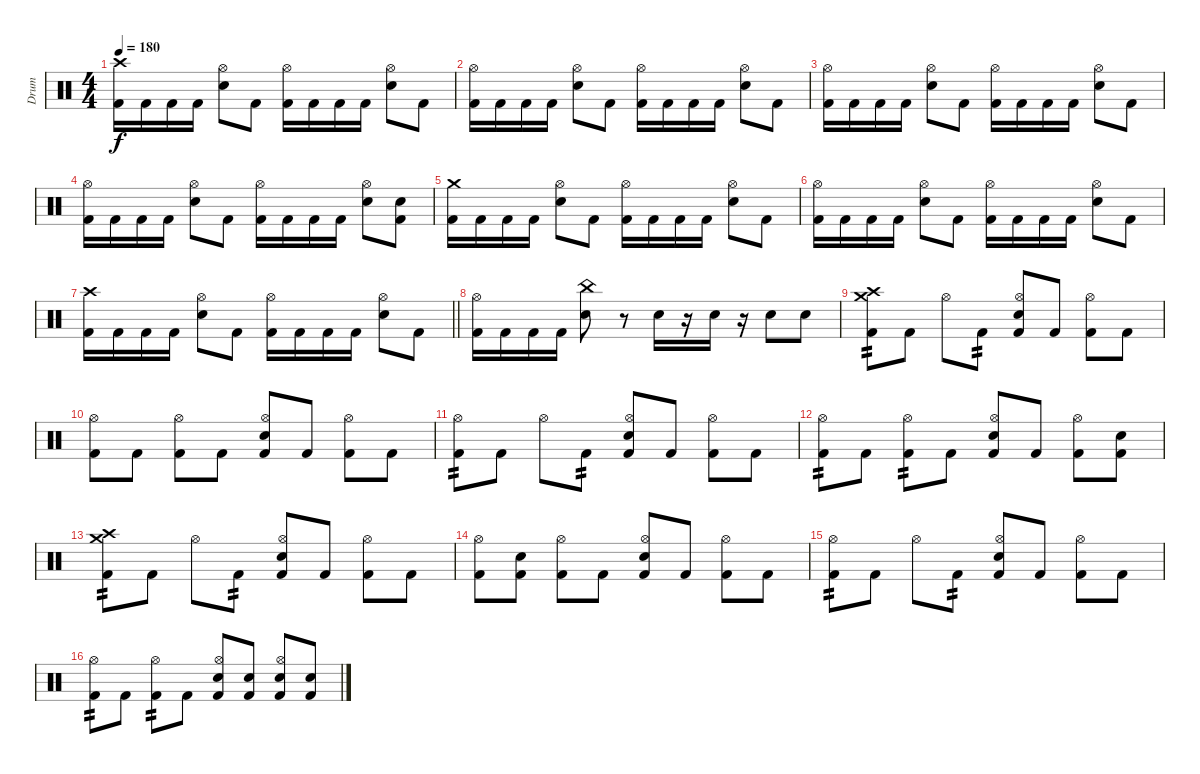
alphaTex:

\track ("Drum" "Drum") {instrument percussion}
\staff {score}
\articulation defaults
\ts (4 4)
\tempo 180
\clef neutral
\ks c
("Crash high (hit)" "Kick (hit) 2").16{dy f} "Kick (hit) 2".16 "Kick (hit) 2".16 "Kick (hit) 2".16 ("Hi-Hat (open)" "Snare (hit) 2").8 "Kick (hit) 2".8 ("Hi-Hat (open)" "Kick (hit) 2").16 "Kick (hit) 2".16 "Kick (hit) 2".16 "Kick (hit) 2".16 ("Hi-Hat (open)" "Snare (hit) 2").8 "Kick (hit) 2".8 |
("Hi-Hat (open)" "Kick (hit) 2").16 "Kick (hit) 2".16 "Kick (hit) 2".16 "Kick (hit) 2".16 ("Hi-Hat (open)" "Snare (hit) 2").8 "Kick (hit) 2".8 ("Hi-Hat (open)" "Kick (hit) 2").16 "Kick (hit) 2".16 "Kick (hit) 2".16 "Kick (hit) 2".16 ("Hi-Hat (open)" "Snare (hit) 2").8 "Kick (hit) 2".8 |
("Hi-Hat (open)" "Kick (hit) 2").16 "Kick (hit) 2".16 "Kick (hit) 2".16 "Kick (hit) 2".16 ("Hi-Hat (open)" "Snare (hit) 2").8 "Kick (hit) 2".8 ("Hi-Hat (open)" "Kick (hit) 2").16 "Kick (hit) 2".16 "Kick (hit) 2".16 "Kick (hit) 2".16 ("Hi-Hat (open)" "Snare (hit) 2").8 "Kick (hit) 2".8 |
("Hi-Hat (open)" "Kick (hit) 2").16 "Kick (hit) 2".16 "Kick (hit) 2".16 "Kick (hit) 2".16 ("Hi-Hat (open)" "Snare (hit) 2").8 "Kick (hit) 2".8 ("Hi-Hat (open)" "Kick (hit) 2").16 "Kick (hit) 2".16 "Kick (hit) 2".16 "Kick (hit) 2".16 ("Hi-Hat (open)" "Snare (hit) 2").8 ("Snare (hit) 2" "Kick (hit) 2").8 |
("Crash medium (hit)" "Kick (hit) 2").16 "Kick (hit) 2".16 "Kick (hit) 2".16 "Kick (hit) 2".16 ("Hi-Hat (open)" "Snare (hit) 2").8 "Kick (hit) 2".8 ("Hi-Hat (open)" "Kick (hit) 2").16 "Kick (hit) 2".16 "Kick (hit) 2".16 "Kick (hit) 2".16 ("Hi-Hat (open)" "Snare (hit) 2").8 "Kick (hit) 2".8 |
("Hi-Hat (open)" "Kick (hit) 2").16 "Kick (hit) 2".16 "Kick (hit) 2".16 "Kick (hit) 2".16 ("Hi-Hat (open)" "Snare (hit) 2").8 "Kick (hit) 2".8 ("Hi-Hat (open)" "Kick (hit) 2").16 "Kick (hit) 2".16 "Kick (hit) 2".16 "Kick (hit) 2".16 ("Hi-Hat (open)" "Snare (hit) 2").8 "Kick (hit) 2".8 |
\barLineRight lightlight
("Crash high (hit)" "Kick (hit) 2").16 "Kick (hit) 2".16 "Kick (hit) 2".16 "Kick (hit) 2".16 ("Hi-Hat (open)" "Snare (hit) 2").8 "Kick (hit) 2".8 ("Hi-Hat (open)" "Kick (hit) 2").16 "Kick (hit) 2".16 "Kick (hit) 2".16 "Kick (hit) 2".16 ("Hi-Hat (open)" "Snare (hit) 2").8 "Kick (hit) 2".8 |
\section ("" "")
("Hi-Hat (open)" "Kick (hit) 2").16 "Kick (hit) 2".16 "Kick (hit) 2".16 "Kick (hit) 2".16 ("China (hit)" "Snare (hit) 2").8 r.8 "Snare (hit) 2".16 r.16 "Snare (hit) 2".16 r.16 "Snare (hit) 2".8 "Snare (hit) 2".8 |
("Crash medium (hit)" "Crash high (hit)" "Kick (hit) 2").8{tp 2} "Kick (hit) 2".8 "Hi-Hat (open)".8 "Kick (hit) 2".8{tp 2} ("Hi-Hat (open)" "Snare (hit) 2" "Kick (hit) 2").8 "Kick (hit) 2".8 ("Hi-Hat (open)" "Kick (hit) 2").8 "Kick (hit) 2".8 |
("Hi-Hat (open)" "Kick (hit) 2").8 "Kick (hit) 2".8 ("Hi-Hat (open)" "Kick (hit) 2").8 "Kick (hit) 2".8 ("Hi-Hat (open)" "Snare (hit) 2" "Kick (hit) 2").8 "Kick (hit) 2".8 ("Hi-Hat (open)" "Kick (hit) 2").8 "Kick (hit) 2".8 |
("Hi-Hat (open)" "Kick (hit) 2").8{tp 2} "Kick (hit) 2".8 "Hi-Hat (open)".8 "Kick (hit) 2".8{tp 2} ("Hi-Hat (open)" "Snare (hit) 2" "Kick (hit) 2").8 "Kick (hit) 2".8 ("Hi-Hat (open)" "Kick (hit) 2").8 "Kick (hit) 2".8 |
("Hi-Hat (open)" "Kick (hit) 2").8{tp 2} "Kick (hit) 2".8 ("Hi-Hat (open)" "Kick (hit) 2").8{tp 2} "Kick (hit) 2".8 ("Hi-Hat (open)" "Snare (hit) 2" "Kick (hit) 2").8 "Kick (hit) 2".8 ("Hi-Hat (open)" "Kick (hit) 2").8 ("Snare (hit) 2" "Kick (hit) 2").8 |
("Crash medium (hit)" "Crash high (hit)" "Kick (hit) 2").8{tp 2} "Kick (hit) 2".8 "Hi-Hat (open)".8 "Kick (hit) 2".8{tp 2} ("Hi-Hat (open)" "Snare (hit) 2" "Kick (hit) 2").8 "Kick (hit) 2".8 ("Hi-Hat (open)" "Kick (hit) 2").8 "Kick (hit) 2".8 |
("Hi-Hat (open)" "Kick (hit) 2").8 ("Snare (hit) 2" "Kick (hit) 2").8 ("Hi-Hat (open)" "Kick (hit) 2").8 "Kick (hit) 2".8 ("Hi-Hat (open)" "Snare (hit) 2" "Kick (hit) 2").8 "Kick (hit) 2".8 ("Hi-Hat (open)" "Kick (hit) 2").8 "Kick (hit) 2".8 |
("Hi-Hat (open)" "Kick (hit) 2").8{tp 2} "Kick (hit) 2".8 "Hi-Hat (open)".8 "Kick (hit) 2".8{tp 2} ("Hi-Hat (open)" "Snare (hit) 2" "Kick (hit) 2").8 "Kick (hit) 2".8 ("Hi-Hat (open)" "Kick (hit) 2").8 "Kick (hit) 2".8 |
("Hi-Hat (open)" "Kick (hit) 2").8{tp 2} "Kick (hit) 2".8 ("Hi-Hat (open)" "Kick (hit) 2").8{tp 2} "Kick (hit) 2".8 ("Hi-Hat (open)" "Snare (hit) 2" "Kick (hit) 2").8 ("Snare (hit) 2" "Kick (hit) 2").8 ("Hi-Hat (open)" "Snare (hit) 2" "Kick (hit) 2").8 ("Snare (hit) 2" "Kick (hit) 2").8
